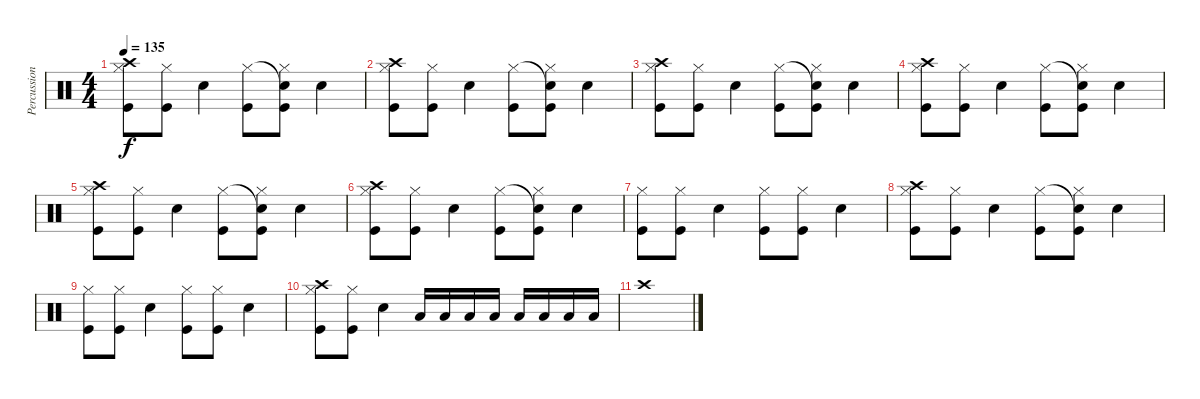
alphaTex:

\track ("Percussion" "Percussion") {instrument percussion}
\staff {score}
\articulation defaults
\ts (4 4)
\tempo 135
\clef neutral
\ks c
("Crash high (hit)" "Hi-Hat (closed)" "Kick (hit)").8{dy f} ("Hi-Hat (closed)" "Kick (hit)").8 "Electric Snare (hit)".4 ("Hi-Hat (closed)" "Kick (hit)").8 ("Snare (hit)"{t} "Hi-Hat (closed)" "Kick (hit)").8 "Electric Snare (hit)".4 |
("Crash high (hit)" "Hi-Hat (closed)" "Kick (hit)").8 ("Hi-Hat (closed)" "Kick (hit)").8 "Electric Snare (hit)".4 ("Hi-Hat (closed)" "Kick (hit)").8 ("Snare (hit)"{t} "Hi-Hat (closed)" "Kick (hit)").8 "Electric Snare (hit)".4 |
("Crash high (hit)" "Hi-Hat (closed)" "Kick (hit)").8 ("Hi-Hat (closed)" "Kick (hit)").8 "Electric Snare (hit)".4 ("Hi-Hat (closed)" "Kick (hit)").8 ("Snare (hit)"{t} "Hi-Hat (closed)" "Kick (hit)").8 "Electric Snare (hit)".4 |
("Crash high (hit)" "Hi-Hat (closed)" "Kick (hit)").8 ("Hi-Hat (closed)" "Kick (hit)").8 "Electric Snare (hit)".4 ("Hi-Hat (closed)" "Kick (hit)").8 ("Snare (hit)"{t} "Hi-Hat (closed)" "Kick (hit)").8 "Electric Snare (hit)".4 |
("Crash high (hit)" "Hi-Hat (closed)" "Kick (hit)").8 ("Hi-Hat (closed)" "Kick (hit)").8 "Electric Snare (hit)".4 ("Hi-Hat (closed)" "Kick (hit)").8 ("Snare (hit)"{t} "Hi-Hat (closed)" "Kick (hit)").8 "Electric Snare (hit)".4 |
("Crash high (hit)" "Hi-Hat (closed)" "Kick (hit)").8 ("Hi-Hat (closed)" "Kick (hit)").8 "Electric Snare (hit)".4 ("Hi-Hat (closed)" "Kick (hit)").8 ("Snare (hit)"{t} "Hi-Hat (closed)" "Kick (hit)").8 "Electric Snare (hit)".4 |
("Hi-Hat (closed)" "Kick (hit)").8 ("Hi-Hat (closed)" "Kick (hit)").8 "Electric Snare (hit)".4 ("Hi-Hat (closed)" "Kick (hit)").8 ("Hi-Hat (closed)" "Kick (hit)").8 "Electric Snare (hit)".4 |
("Crash high (hit)" "Hi-Hat (closed)" "Kick (hit)").8 ("Hi-Hat (closed)" "Kick (hit)").8 "Electric Snare (hit)".4 ("Hi-Hat (closed)" "Kick (hit)").8 ("Snare (hit)"{t} "Hi-Hat (closed)" "Kick (hit)").8 "Electric Snare (hit)".4 |
("Hi-Hat (closed)" "Kick (hit)").8 ("Hi-Hat (closed)" "Kick (hit)").8 "Electric Snare (hit)".4 ("Hi-Hat (closed)" "Kick (hit)").8 ("Hi-Hat (closed)" "Kick (hit)").8 "Electric Snare (hit)".4 |
("Crash high (hit)" "Hi-Hat (closed)" "Kick (hit)").8 ("Hi-Hat (closed)" "Kick (hit)").8 "Electric Snare (hit)".4 "Low Tom (hit)".16 "Low Tom (hit)".16 "Low Tom (hit)".16 "Low Tom (hit)".16 "Low Tom (hit)".16 "Low Tom (hit)".16 "Low Tom (hit)".16 "Low Tom (hit)".16 |
"Crash high (hit)".1
